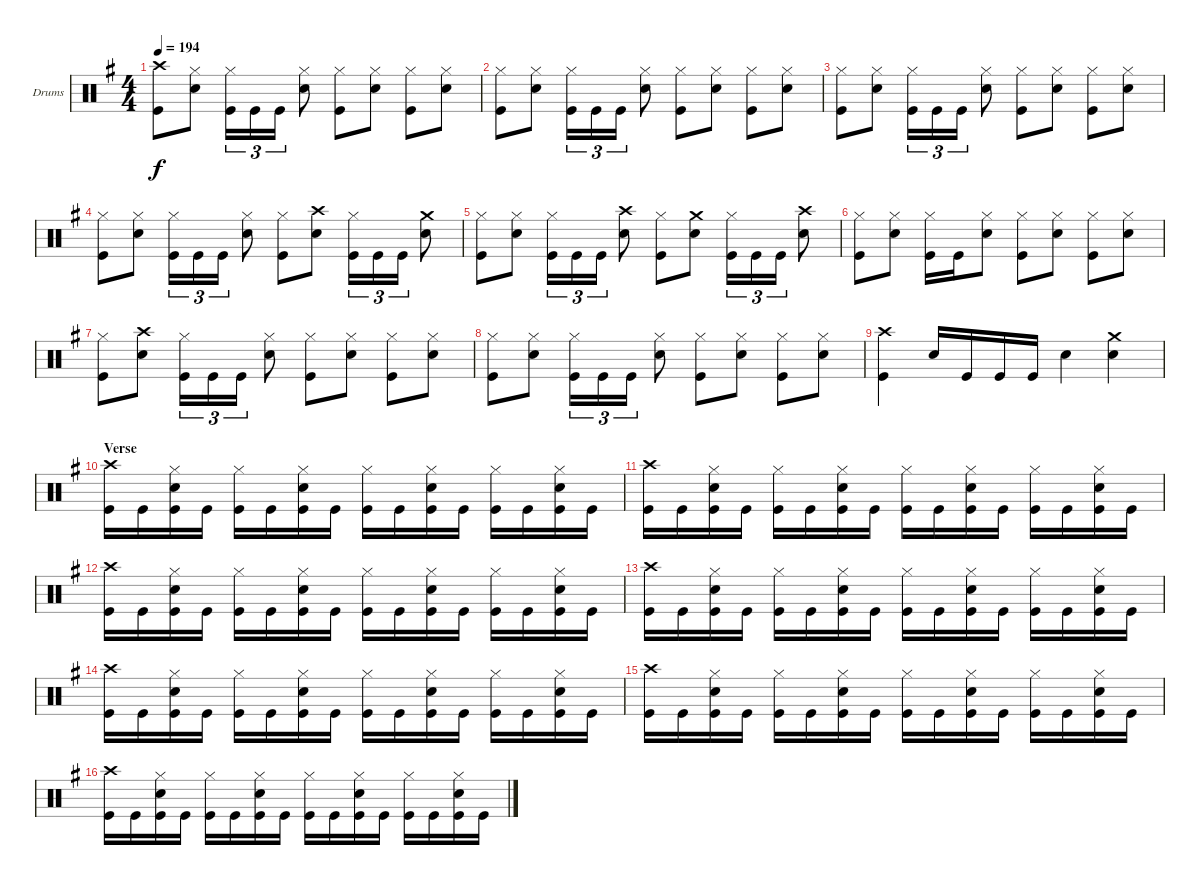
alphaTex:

\bracketExtendMode groupsimilarinstruments
\firstSystemTrackNameOrientation horizontal
\otherSystemsTrackNameOrientation horizontal
\track ("Drumkit" "Drums") {instrument percussion}
\staff {score}
\articulation defaults
\ts (4 4)
\tempo 194
\clef neutral
\scale
1.04288
\ks g
("Crash high (hit)" "Kick (hit)").8{dy f} ("Hi-Hat (closed)" "Snare (hit) 2").8 ("Hi-Hat (closed)" "Kick (hit)").16{tu (3 2)} "Kick (hit)".16{tu (3 2)} "Kick (hit)".16{tu (3 2)} ("Hi-Hat (closed)" "Snare (hit) 2").8 ("Hi-Hat (closed)" "Kick (hit)").8 ("Hi-Hat (closed)" "Snare (hit) 2").8 ("Hi-Hat (closed)" "Kick (hit)").8 ("Hi-Hat (closed)" "Snare (hit) 2").8 |
\scale
0.957125 ("Hi-Hat (closed)" "Kick (hit)").8 ("Hi-Hat (closed)" "Snare (hit) 2").8 ("Hi-Hat (closed)" "Kick (hit)").16{tu (3 2)} "Kick (hit)".16{tu (3 2)} "Kick (hit)".16{tu (3 2)} ("Hi-Hat (closed)" "Snare (hit) 2").8 ("Hi-Hat (closed)" "Kick (hit)").8 ("Hi-Hat (closed)" "Snare (hit) 2").8 ("Hi-Hat (closed)" "Kick (hit)").8 ("Hi-Hat (closed)" "Snare (hit) 2").8 |
\scale
1.04288 ("Hi-Hat (closed)" "Kick (hit)").8 ("Hi-Hat (closed)" "Snare (hit) 2").8 ("Hi-Hat (closed)" "Kick (hit)").16{tu (3 2)} "Kick (hit)".16{tu (3 2)} "Kick (hit)".16{tu (3 2)} ("Hi-Hat (closed)" "Snare (hit) 2").8 ("Hi-Hat (closed)" "Kick (hit)").8 ("Hi-Hat (closed)" "Snare (hit) 2").8 ("Hi-Hat (closed)" "Kick (hit)").8 ("Hi-Hat (closed)" "Snare (hit) 2").8 |
\scale
0.957125 ("Hi-Hat (closed)" "Kick (hit)").8 ("Hi-Hat (closed)" "Snare (hit) 2").8 ("Hi-Hat (closed)" "Kick (hit)").16{tu (3 2)} "Kick (hit)".16{tu (3 2)} "Kick (hit)".16{tu (3 2)} ("Hi-Hat (closed)" "Snare (hit) 2").8 ("Hi-Hat (closed)" "Kick (hit)").8 ("Crash high (hit)" "Snare (hit) 2").8 ("Hi-Hat (closed)" "Kick (hit)").16{tu (3 2)} "Kick (hit)".16{tu (3 2)} "Kick (hit)".16{tu (3 2)} ("Crash medium (hit)" "Snare (hit) 2").8 |
\scale
1.04288 ("Hi-Hat (closed)" "Kick (hit)").8 ("Hi-Hat (closed)" "Snare (hit) 2").8 ("Hi-Hat (closed)" "Kick (hit)").16{tu (3 2)} "Kick (hit)".16{tu (3 2)} "Kick (hit)".16{tu (3 2)} ("Crash high (hit)" "Snare (hit) 2").8 ("Hi-Hat (closed)" "Kick (hit)").8 ("Crash medium (hit)" "Snare (hit) 2").8 ("Hi-Hat (closed)" "Kick (hit)").16{tu (3 2)} "Kick (hit)".16{tu (3 2)} "Kick (hit)".16{tu (3 2)} ("Crash high (hit)" "Snare (hit) 2").8 |
\scale
0.957125 ("Hi-Hat (closed)" "Kick (hit)").8 ("Hi-Hat (closed)" "Snare (hit) 2").8 ("Hi-Hat (closed)" "Kick (hit)").16 "Kick (hit)".16 ("Hi-Hat (closed)" "Snare (hit) 2").8 ("Hi-Hat (closed)" "Kick (hit)").8 ("Hi-Hat (closed)" "Snare (hit) 2").8 ("Hi-Hat (closed)" "Kick (hit)").8 ("Hi-Hat (closed)" "Snare (hit) 2").8 |
\scale
1.04288 ("Hi-Hat (closed)" "Kick (hit)").8 ("Crash high (hit)" "Snare (hit) 2").8 ("Hi-Hat (closed)" "Kick (hit)").16{tu (3 2)} "Kick (hit)".16{tu (3 2)} "Kick (hit)".16{tu (3 2)} ("Hi-Hat (closed)" "Snare (hit) 2").8 ("Hi-Hat (closed)" "Kick (hit)").8 ("Hi-Hat (closed)" "Snare (hit) 2").8 ("Hi-Hat (closed)" "Kick (hit)").8 ("Hi-Hat (closed)" "Snare (hit) 2").8 |
\scale
0.957125 ("Hi-Hat (closed)" "Kick (hit)").8 ("Hi-Hat (closed)" "Snare (hit) 2").8 ("Hi-Hat (closed)" "Kick (hit)").16{tu (3 2)} "Kick (hit)".16{tu (3 2)} "Kick (hit)".16{tu (3 2)} ("Hi-Hat (closed)" "Snare (hit) 2").8 ("Hi-Hat (closed)" "Kick (hit)").8 ("Hi-Hat (closed)" "Snare (hit) 2").8 ("Hi-Hat (closed)" "Kick (hit)").8 ("Hi-Hat (closed)" "Snare (hit) 2").8 |
\scale
1.04288 ("Crash high (hit)" "Kick (hit)").4 "Snare (hit) 2".16 "Kick (hit)".16 "Kick (hit)".16 "Kick (hit)".16 "Snare (hit) 2".4 ("Crash medium (hit)" "Snare (hit) 2").4 |
\section ("" "Verse")
\scale
0.957125 ("Crash high (hit)" "Kick (hit)").16 "Kick (hit)".16 ("Hi-Hat (closed)" "Snare (hit) 2" "Kick (hit)").16 "Kick (hit)".16 ("Hi-Hat (closed)" "Kick (hit)").16 "Kick (hit)".16 ("Hi-Hat (closed)" "Snare (hit) 2" "Kick (hit)").16 "Kick (hit)".16 ("Hi-Hat (closed)" "Kick (hit)").16 "Kick (hit)".16 ("Hi-Hat (closed)" "Snare (hit) 2" "Kick (hit)").16 "Kick (hit)".16 ("Hi-Hat (closed)" "Kick (hit)").16 "Kick (hit)".16 ("Hi-Hat (closed)" "Snare (hit) 2" "Kick (hit)").16 "Kick (hit)".16 |
\scale
1.04288 ("Crash high (hit)" "Kick (hit)").16 "Kick (hit)".16 ("Hi-Hat (closed)" "Snare (hit) 2" "Kick (hit)").16 "Kick (hit)".16 ("Hi-Hat (closed)" "Kick (hit)").16 "Kick (hit)".16 ("Hi-Hat (closed)" "Snare (hit) 2" "Kick (hit)").16 "Kick (hit)".16 ("Hi-Hat (closed)" "Kick (hit)").16 "Kick (hit)".16 ("Hi-Hat (closed)" "Snare (hit) 2" "Kick (hit)").16 "Kick (hit)".16 ("Hi-Hat (closed)" "Kick (hit)").16 "Kick (hit)".16 ("Hi-Hat (closed)" "Snare (hit) 2" "Kick (hit)").16 "Kick (hit)".16 |
\scale
0.957125 ("Crash high (hit)" "Kick (hit)").16 "Kick (hit)".16 ("Hi-Hat (closed)" "Snare (hit) 2" "Kick (hit)").16 "Kick (hit)".16 ("Hi-Hat (closed)" "Kick (hit)").16 "Kick (hit)".16 ("Hi-Hat (closed)" "Snare (hit) 2" "Kick (hit)").16 "Kick (hit)".16 ("Hi-Hat (closed)" "Kick (hit)").16 "Kick (hit)".16 ("Hi-Hat (closed)" "Snare (hit) 2" "Kick (hit)").16 "Kick (hit)".16 ("Hi-Hat (closed)" "Kick (hit)").16 "Kick (hit)".16 ("Hi-Hat (closed)" "Snare (hit) 2" "Kick (hit)").16 "Kick (hit)".16 |
\scale
1.04288 ("Crash high (hit)" "Kick (hit)").16 "Kick (hit)".16 ("Hi-Hat (closed)" "Snare (hit) 2" "Kick (hit)").16 "Kick (hit)".16 ("Hi-Hat (closed)" "Kick (hit)").16 "Kick (hit)".16 ("Hi-Hat (closed)" "Snare (hit) 2" "Kick (hit)").16 "Kick (hit)".16 ("Hi-Hat (closed)" "Kick (hit)").16 "Kick (hit)".16 ("Hi-Hat (closed)" "Snare (hit) 2" "Kick (hit)").16 "Kick (hit)".16 ("Hi-Hat (closed)" "Kick (hit)").16 "Kick (hit)".16 ("Hi-Hat (closed)" "Snare (hit) 2" "Kick (hit)").16 "Kick (hit)".16 |
\scale
0.957125 ("Crash high (hit)" "Kick (hit)").16 "Kick (hit)".16 ("Hi-Hat (closed)" "Snare (hit) 2" "Kick (hit)").16 "Kick (hit)".16 ("Hi-Hat (closed)" "Kick (hit)").16 "Kick (hit)".16 ("Hi-Hat (closed)" "Snare (hit) 2" "Kick (hit)").16 "Kick (hit)".16 ("Hi-Hat (closed)" "Kick (hit)").16 "Kick (hit)".16 ("Hi-Hat (closed)" "Snare (hit) 2" "Kick (hit)").16 "Kick (hit)".16 ("Hi-Hat (closed)" "Kick (hit)").16 "Kick (hit)".16 ("Hi-Hat (closed)" "Snare (hit) 2" "Kick (hit)").16 "Kick (hit)".16 |
\scale
1.04288 ("Crash high (hit)" "Kick (hit)").16 "Kick (hit)".16 ("Hi-Hat (closed)" "Snare (hit) 2" "Kick (hit)").16 "Kick (hit)".16 ("Hi-Hat (closed)" "Kick (hit)").16 "Kick (hit)".16 ("Hi-Hat (closed)" "Snare (hit) 2" "Kick (hit)").16 "Kick (hit)".16 ("Hi-Hat (closed)" "Kick (hit)").16 "Kick (hit)".16 ("Hi-Hat (closed)" "Snare (hit) 2" "Kick (hit)").16 "Kick (hit)".16 ("Hi-Hat (closed)" "Kick (hit)").16 "Kick (hit)".16 ("Hi-Hat (closed)" "Snare (hit) 2" "Kick (hit)").16 "Kick (hit)".16 |
\scale
0.957125 ("Crash high (hit)" "Kick (hit)").16 "Kick (hit)".16 ("Hi-Hat (closed)" "Snare (hit) 2" "Kick (hit)").16 "Kick (hit)".16 ("Hi-Hat (closed)" "Kick (hit)").16 "Kick (hit)".16 ("Hi-Hat (closed)" "Snare (hit) 2" "Kick (hit)").16 "Kick (hit)".16 ("Hi-Hat (closed)" "Kick (hit)").16 "Kick (hit)".16 ("Hi-Hat (closed)" "Snare (hit) 2" "Kick (hit)").16 "Kick (hit)".16 ("Hi-Hat (closed)" "Kick (hit)").16 "Kick (hit)".16 ("Hi-Hat (closed)" "Snare (hit) 2" "Kick (hit)").16 "Kick (hit)".16
